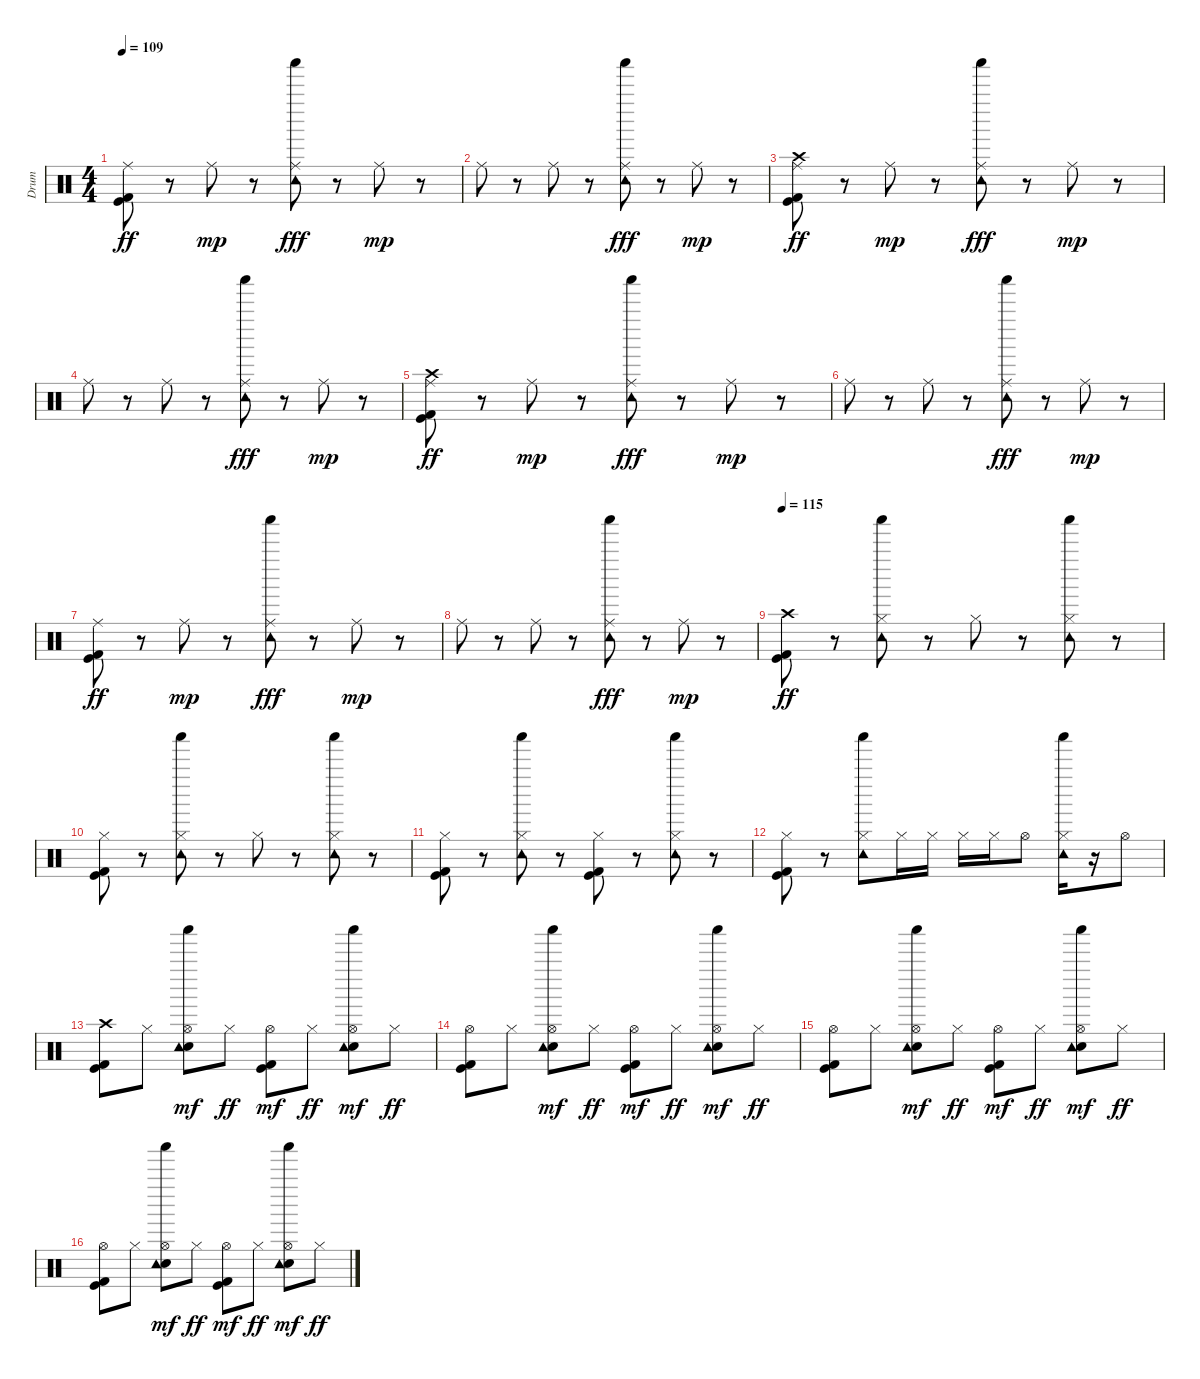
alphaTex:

\track ("Drum" "Drum") {instrument percussion}
\staff {score}
\articulation defaults
\ts (4 4)
\tempo 109
\clef neutral
\ks c
("Ride (middle)" "Kick (hit)" "Kick (hit) 2").8{dy ff} r.8 "Ride (middle)".8{dy mp} r.8 ("Ride (middle)" "Shaker (hit)" "Tambourine (hit)").8{dy fff} r.8 "Ride (middle)".8{dy mp} r.8 |
"Ride (middle)".8 r.8 "Ride (middle)".8 r.8 ("Ride (middle)" "Shaker (hit)" "Tambourine (hit)").8{dy fff} r.8 "Ride (middle)".8{dy mp} r.8 |
("Ride (middle)" "Crash high (hit)" "Kick (hit)" "Kick (hit) 2").8{dy ff} r.8 "Ride (middle)".8{dy mp} r.8 ("Ride (middle)" "Shaker (hit)" "Tambourine (hit)").8{dy fff} r.8 "Ride (middle)".8{dy mp} r.8 |
"Ride (middle)".8 r.8 "Ride (middle)".8 r.8 ("Ride (middle)" "Shaker (hit)" "Tambourine (hit)").8{dy fff} r.8 "Ride (middle)".8{dy mp} r.8 |
("Ride (middle)" "Crash high (hit)" "Kick (hit)" "Kick (hit) 2").8{dy ff} r.8 "Ride (middle)".8{dy mp} r.8 ("Ride (middle)" "Shaker (hit)" "Tambourine (hit)").8{dy fff} r.8 "Ride (middle)".8{dy mp} r.8 |
"Ride (middle)".8 r.8 "Ride (middle)".8 r.8 ("Ride (middle)" "Shaker (hit)" "Tambourine (hit)").8{dy fff} r.8 "Ride (middle)".8{dy mp} r.8 |
("Ride (middle)" "Kick (hit)" "Kick (hit) 2").8{dy ff} r.8 "Ride (middle)".8{dy mp} r.8 ("Ride (middle)" "Shaker (hit)" "Tambourine (hit)").8{dy fff} r.8 "Ride (middle)".8{dy mp} r.8 |
"Ride (middle)".8 r.8 "Ride (middle)".8 r.8 ("Ride (middle)" "Shaker (hit)" "Tambourine (hit)").8{dy fff} r.8 "Ride (middle)".8{dy mp} r.8 |
\tempo 115
("Crash high (hit)" "Kick (hit)" "Kick (hit) 2").8{dy ff} r.8 ("Hi-Hat (closed)" "Shaker (hit)" "Tambourine (hit)").8 r.8 "Hi-Hat (closed)".8 r.8 ("Hi-Hat (closed)" "Shaker (hit)" "Tambourine (hit)").8 r.8 |
("Hi-Hat (closed)" "Kick (hit)" "Kick (hit) 2").8 r.8 ("Hi-Hat (closed)" "Shaker (hit)" "Tambourine (hit)").8 r.8 "Hi-Hat (closed)".8 r.8 ("Hi-Hat (closed)" "Shaker (hit)" "Tambourine (hit)").8 r.8 |
("Hi-Hat (closed)" "Kick (hit)" "Kick (hit) 2").8 r.8 ("Hi-Hat (closed)" "Shaker (hit)" "Tambourine (hit)").8 r.8 ("Hi-Hat (closed)" "Kick (hit)" "Kick (hit) 2").8 r.8 ("Hi-Hat (closed)" "Shaker (hit)" "Tambourine (hit)").8 r.8 |
("Hi-Hat (closed)" "Kick (hit)" "Kick (hit) 2").8 r.8 ("Hi-Hat (closed)" "Shaker (hit)" "Tambourine (hit)").8 "Hi-Hat (closed)".16 "Hi-Hat (closed)".16 "Hi-Hat (closed)".16 "Hi-Hat (closed)".16 "Hi-Hat (open)".8 ("Hi-Hat (closed)" "Shaker (hit)" "Tambourine (hit)").16 r.16 "Hi-Hat (open)".8 |
("Crash high (hit)" "Kick (hit)" "Kick (hit) 2").8 "Hi-Hat (closed)".8 ("Hi-Hat (open)" "Shaker (hit)" "Snare (hit) 2" "Tambourine (hit)").8{dy mf} "Hi-Hat (closed)".8{dy ff} ("Hi-Hat (open)" "Kick (hit)" "Kick (hit) 2").8{dy mf} "Hi-Hat (closed)".8{dy ff} ("Hi-Hat (open)" "Shaker (hit)" "Snare (hit) 2" "Tambourine (hit)").8{dy mf} "Hi-Hat (closed)".8{dy ff} |
("Hi-Hat (open)" "Kick (hit)" "Kick (hit) 2").8 "Hi-Hat (closed)".8 ("Hi-Hat (open)" "Shaker (hit)" "Snare (hit) 2" "Tambourine (hit)").8{dy mf} "Hi-Hat (closed)".8{dy ff} ("Hi-Hat (open)" "Kick (hit)" "Kick (hit) 2").8{dy mf} "Hi-Hat (closed)".8{dy ff} ("Hi-Hat (open)" "Shaker (hit)" "Snare (hit) 2" "Tambourine (hit)").8{dy mf} "Hi-Hat (closed)".8{dy ff} |
("Hi-Hat (open)" "Kick (hit)" "Kick (hit) 2").8 "Hi-Hat (closed)".8 ("Hi-Hat (open)" "Shaker (hit)" "Snare (hit) 2" "Tambourine (hit)").8{dy mf} "Hi-Hat (closed)".8{dy ff} ("Hi-Hat (open)" "Kick (hit)" "Kick (hit) 2").8{dy mf} "Hi-Hat (closed)".8{dy ff} ("Hi-Hat (open)" "Shaker (hit)" "Snare (hit) 2" "Tambourine (hit)").8{dy mf} "Hi-Hat (closed)".8{dy ff} |
("Hi-Hat (open)" "Kick (hit)" "Kick (hit) 2").8 "Hi-Hat (closed)".8 ("Hi-Hat (open)" "Shaker (hit)" "Snare (hit) 2" "Tambourine (hit)").8{dy mf} "Hi-Hat (closed)".8{dy ff} ("Hi-Hat (open)" "Kick (hit)" "Kick (hit) 2").8{dy mf} "Hi-Hat (closed)".8{dy ff} ("Hi-Hat (open)" "Shaker (hit)" "Snare (hit) 2" "Tambourine (hit)").8{dy mf} "Hi-Hat (closed)".8{dy ff}
